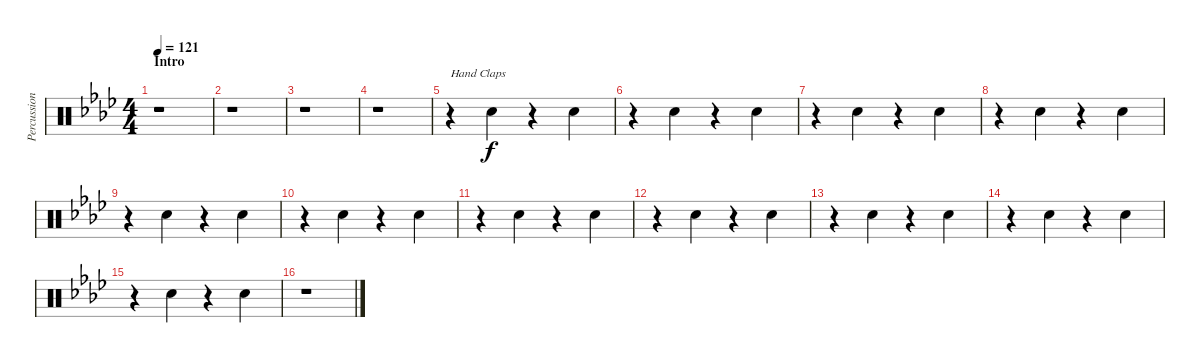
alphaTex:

\track ("Percussion" "Percussion") {instrument percussion}
\staff {score}
\articulation defaults
\ts (4 4)
\section ("" "Intro")
\tempo 121
\clef neutral
\ks ab
r.1{dy f} |
r.1 |
r.1 |
r.1 |
r.4{txt "Hand Claps"} "Hand Clap (hit)".4 r.4 "Hand Clap (hit)".4 |
r.4 "Hand Clap (hit)".4 r.4 "Hand Clap (hit)".4 |
r.4 "Hand Clap (hit)".4 r.4 "Hand Clap (hit)".4 |
r.4 "Hand Clap (hit)".4 r.4 "Hand Clap (hit)".4 |
r.4 "Hand Clap (hit)".4 r.4 "Hand Clap (hit)".4 |
r.4 "Hand Clap (hit)".4 r.4 "Hand Clap (hit)".4 |
r.4 "Hand Clap (hit)".4 r.4 "Hand Clap (hit)".4 |
r.4 "Hand Clap (hit)".4 r.4 "Hand Clap (hit)".4 |
r.4 "Hand Clap (hit)".4 r.4 "Hand Clap (hit)".4 |
r.4 "Hand Clap (hit)".4 r.4 "Hand Clap (hit)".4 |
r.4 "Hand Clap (hit)".4 r.4 "Hand Clap (hit)".4 |
r.1
